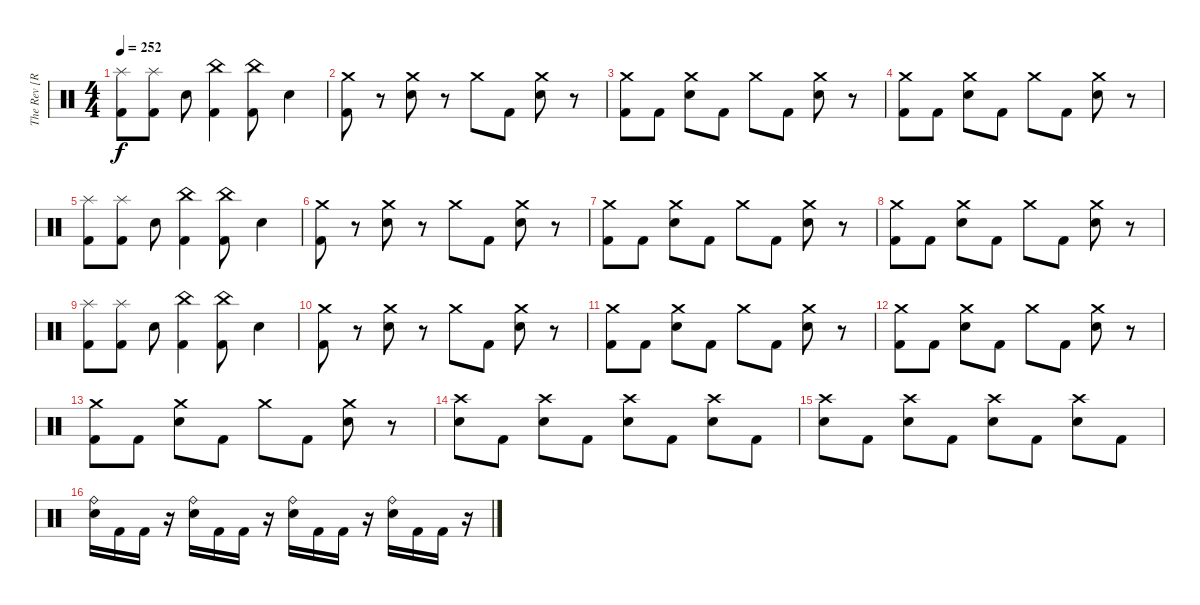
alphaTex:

\track ("The Rev [R.I.P]" "The Rev [R") {instrument percussion}
\staff {score}
\articulation defaults
\ts (4 4)
\tempo 252
\clef neutral
\ks c
("Splash (hit)" "Kick (hit) 2").8{dy f} ("Splash (hit)" "Kick (hit) 2").8 "Electric Snare (hit)".8 ("China (hit)" "Kick (hit) 2").4 ("China (hit)" "Kick (hit) 2").8 "Electric Snare (hit)".4 |
("Crash medium (hit)" "Kick (hit) 2").8 r.8 ("Crash medium (hit)" "Electric Snare (hit)").8 r.8 "Crash medium (hit)".8 "Kick (hit) 2".8 ("Crash medium (hit)" "Electric Snare (hit)").8 r.8 |
("Crash medium (hit)" "Kick (hit) 2").8 "Kick (hit) 2".8 ("Crash medium (hit)" "Electric Snare (hit)").8 "Kick (hit) 2".8 "Crash medium (hit)".8 "Kick (hit) 2".8 ("Crash medium (hit)" "Electric Snare (hit)").8 r.8 |
("Crash medium (hit)" "Kick (hit) 2").8 "Kick (hit) 2".8 ("Crash medium (hit)" "Electric Snare (hit)").8 "Kick (hit) 2".8 "Crash medium (hit)".8 "Kick (hit) 2".8 ("Crash medium (hit)" "Electric Snare (hit)").8 r.8 |
("Splash (hit)" "Kick (hit) 2").8 ("Splash (hit)" "Kick (hit) 2").8 "Electric Snare (hit)".8 ("China (hit)" "Kick (hit) 2").4 ("China (hit)" "Kick (hit) 2").8 "Electric Snare (hit)".4 |
("Crash medium (hit)" "Kick (hit) 2").8 r.8 ("Crash medium (hit)" "Electric Snare (hit)").8 r.8 "Crash medium (hit)".8 "Kick (hit) 2".8 ("Crash medium (hit)" "Electric Snare (hit)").8 r.8 |
("Crash medium (hit)" "Kick (hit) 2").8 "Kick (hit) 2".8 ("Crash medium (hit)" "Electric Snare (hit)").8 "Kick (hit) 2".8 "Crash medium (hit)".8 "Kick (hit) 2".8 ("Crash medium (hit)" "Electric Snare (hit)").8 r.8 |
("Crash medium (hit)" "Kick (hit) 2").8 "Kick (hit) 2".8 ("Crash medium (hit)" "Electric Snare (hit)").8 "Kick (hit) 2".8 "Crash medium (hit)".8 "Kick (hit) 2".8 ("Crash medium (hit)" "Electric Snare (hit)").8 r.8 |
("Splash (hit)" "Kick (hit) 2").8 ("Splash (hit)" "Kick (hit) 2").8 "Electric Snare (hit)".8 ("China (hit)" "Kick (hit) 2").4 ("China (hit)" "Kick (hit) 2").8 "Electric Snare (hit)".4 |
("Crash medium (hit)" "Kick (hit) 2").8 r.8 ("Crash medium (hit)" "Electric Snare (hit)").8 r.8 "Crash medium (hit)".8 "Kick (hit) 2".8 ("Crash medium (hit)" "Electric Snare (hit)").8 r.8 |
("Crash medium (hit)" "Kick (hit) 2").8 "Kick (hit) 2".8 ("Crash medium (hit)" "Electric Snare (hit)").8 "Kick (hit) 2".8 "Crash medium (hit)".8 "Kick (hit) 2".8 ("Crash medium (hit)" "Electric Snare (hit)").8 r.8 |
("Crash medium (hit)" "Kick (hit) 2").8 "Kick (hit) 2".8 ("Crash medium (hit)" "Electric Snare (hit)").8 "Kick (hit) 2".8 "Crash medium (hit)".8 "Kick (hit) 2".8 ("Crash medium (hit)" "Electric Snare (hit)").8 r.8 |
("Crash medium (hit)" "Kick (hit) 2").8 "Kick (hit) 2".8 ("Crash medium (hit)" "Electric Snare (hit)").8 "Kick (hit) 2".8 "Crash medium (hit)".8 "Kick (hit) 2".8 ("Crash medium (hit)" "Electric Snare (hit)").8 r.8 |
("Crash high (hit)" "Electric Snare (hit)").8 "Kick (hit) 2".8 ("Crash high (hit)" "Electric Snare (hit)").8 "Kick (hit) 2".8 ("Crash high (hit)" "Electric Snare (hit)").8 "Kick (hit) 2".8 ("Crash high (hit)" "Electric Snare (hit)").8 "Kick (hit) 2".8 |
("Crash high (hit)" "Electric Snare (hit)").8 "Kick (hit) 2".8 ("Crash high (hit)" "Electric Snare (hit)").8 "Kick (hit) 2".8 ("Crash high (hit)" "Electric Snare (hit)").8 "Kick (hit) 2".8 ("Crash high (hit)" "Electric Snare (hit)").8 "Kick (hit) 2".8 |
("Ride (bell)" "Electric Snare (hit)").16 "Kick (hit) 2".16 "Kick (hit) 2".16 r.16 ("Ride (bell)" "Electric Snare (hit)").16 "Kick (hit) 2".16 "Kick (hit) 2".16 r.16 ("Ride (bell)" "Electric Snare (hit)").16 "Kick (hit) 2".16 "Kick (hit) 2".16 r.16 ("Ride (bell)" "Electric Snare (hit)").16 "Kick (hit) 2".16 "Kick (hit) 2".16 r.16
